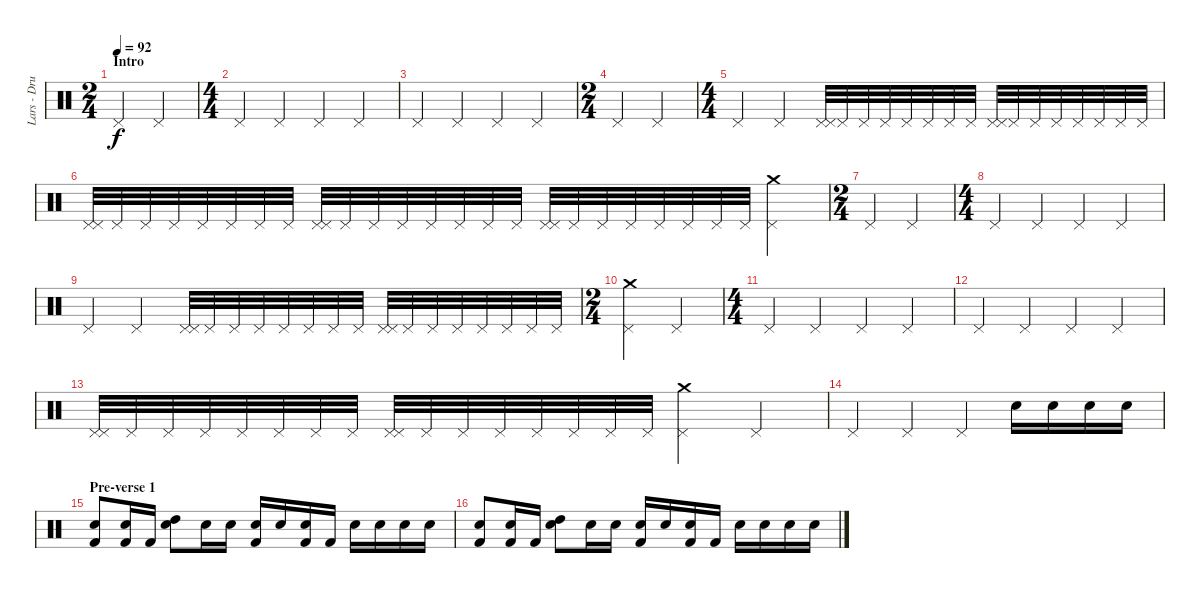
\track ("Lars - Drums" "Lars - Dru") {instrument percussion}
\staff {score}
\articulation defaults
\ts (2 4)
\section ("" "Intro")
\tempo 92
\clef neutral
\ks c "Pedal Hi-Hat (hit)".4{dy f} "Pedal Hi-Hat (hit)".4
|
\ts (4 4)
"Pedal Hi-Hat (hit)".4 "Pedal Hi-Hat (hit)".4 "Pedal Hi-Hat (hit)".4 "Pedal Hi-Hat (hit)".4 |
"Pedal Hi-Hat (hit)".4 "Pedal Hi-Hat (hit)".4 "Pedal Hi-Hat (hit)".4 "Pedal Hi-Hat (hit)".4 |
\ts (2 4)
"Pedal Hi-Hat (hit)".4 "Pedal Hi-Hat (hit)".4 |
\ts (4 4)
"Pedal Hi-Hat (hit)".4 "Pedal Hi-Hat (hit)".4 ("Pedal Hi-Hat (hit)" "Pedal Hi-Hat (hit)").32 "Pedal Hi-Hat (hit)".32 "Pedal Hi-Hat (hit)".32 "Pedal Hi-Hat (hit)".32 "Pedal Hi-Hat (hit)".32 "Pedal Hi-Hat (hit)".32 "Pedal Hi-Hat (hit)".32 "Pedal Hi-Hat (hit)".32 ("Pedal Hi-Hat (hit)" "Pedal Hi-Hat (hit)").32 "Pedal Hi-Hat (hit)".32 "Pedal Hi-Hat (hit)".32 "Pedal Hi-Hat (hit)".32 "Pedal Hi-Hat (hit)".32 "Pedal Hi-Hat (hit)".32 "Pedal Hi-Hat (hit)".32 "Pedal Hi-Hat (hit)".32 |
("Pedal Hi-Hat (hit)" "Pedal Hi-Hat (hit)").32 "Pedal Hi-Hat (hit)".32 "Pedal Hi-Hat (hit)".32 "Pedal Hi-Hat (hit)".32 "Pedal Hi-Hat (hit)".32 "Pedal Hi-Hat (hit)".32 "Pedal Hi-Hat (hit)".32 "Pedal Hi-Hat (hit)".32 ("Pedal Hi-Hat (hit)" "Pedal Hi-Hat (hit)").32 "Pedal Hi-Hat (hit)".32 "Pedal Hi-Hat (hit)".32 "Pedal Hi-Hat (hit)".32 "Pedal Hi-Hat (hit)".32 "Pedal Hi-Hat (hit)".32 "Pedal Hi-Hat (hit)".32 "Pedal Hi-Hat (hit)".32 ("Pedal Hi-Hat (hit)" "Pedal Hi-Hat (hit)").32 "Pedal Hi-Hat (hit)".32 "Pedal Hi-Hat (hit)".32 "Pedal Hi-Hat (hit)".32 "Pedal Hi-Hat (hit)".32 "Pedal Hi-Hat (hit)".32 "Pedal Hi-Hat (hit)".32 "Pedal Hi-Hat (hit)".32 ("Crash medium (hit)" "Pedal Hi-Hat (hit)").4 |
\ts (2 4)
"Pedal Hi-Hat (hit)".4 "Pedal Hi-Hat (hit)".4 |
\ts (4 4)
"Pedal Hi-Hat (hit)".4 "Pedal Hi-Hat (hit)".4 "Pedal Hi-Hat (hit)".4 "Pedal Hi-Hat (hit)".4 |
"Pedal Hi-Hat (hit)".4 "Pedal Hi-Hat (hit)".4 ("Pedal Hi-Hat (hit)" "Pedal Hi-Hat (hit)").32 "Pedal Hi-Hat (hit)".32 "Pedal Hi-Hat (hit)".32 "Pedal Hi-Hat (hit)".32 "Pedal Hi-Hat (hit)".32 "Pedal Hi-Hat (hit)".32 "Pedal Hi-Hat (hit)".32 "Pedal Hi-Hat (hit)".32 ("Pedal Hi-Hat (hit)" "Pedal Hi-Hat (hit)").32 "Pedal Hi-Hat (hit)".32 "Pedal Hi-Hat (hit)".32 "Pedal Hi-Hat (hit)".32 "Pedal Hi-Hat (hit)".32 "Pedal Hi-Hat (hit)".32 "Pedal Hi-Hat (hit)".32 "Pedal Hi-Hat (hit)".32 |
\ts (2 4)
("Crash medium (hit)" "Pedal Hi-Hat (hit)").4 "Pedal Hi-Hat (hit)".4 |
\ts (4 4)
"Pedal Hi-Hat (hit)".4 "Pedal Hi-Hat (hit)".4 "Pedal Hi-Hat (hit)".4 "Pedal Hi-Hat (hit)".4 |
"Pedal Hi-Hat (hit)".4 "Pedal Hi-Hat (hit)".4 "Pedal Hi-Hat (hit)".4 "Pedal Hi-Hat (hit)".4 |
("Pedal Hi-Hat (hit)" "Pedal Hi-Hat (hit)").32 "Pedal Hi-Hat (hit)".32 "Pedal Hi-Hat (hit)".32 "Pedal Hi-Hat (hit)".32 "Pedal Hi-Hat (hit)".32 "Pedal Hi-Hat (hit)".32 "Pedal Hi-Hat (hit)".32 "Pedal Hi-Hat (hit)".32 ("Pedal Hi-Hat (hit)" "Pedal Hi-Hat (hit)").32 "Pedal Hi-Hat (hit)".32 "Pedal Hi-Hat (hit)".32 "Pedal Hi-Hat (hit)".32 "Pedal Hi-Hat (hit)".32 "Pedal Hi-Hat (hit)".32 "Pedal Hi-Hat (hit)".32 "Pedal Hi-Hat (hit)".32 ("Crash medium (hit)" "Pedal Hi-Hat (hit)").4 "Pedal Hi-Hat (hit)".4 |
"Pedal Hi-Hat (hit)".4 "Pedal Hi-Hat (hit)".4 "Pedal Hi-Hat (hit)".4 "Electric Snare (hit)".16 "Electric Snare (hit)".16 "Electric Snare (hit)".16 "Electric Snare (hit)".16 |
\section ("" "Pre-verse 1")
("Electric Snare (hit)" "Kick (hit) 2").8 ("Electric Snare (hit)" "Kick (hit) 2").16 "Kick (hit) 2".16 ("High Tom (hit)" "Electric Snare (hit)").8 "Electric Snare (hit)".16 "Electric Snare (hit)".16 ("Electric Snare (hit)" "Kick (hit) 2").16 "Electric Snare (hit)".16 ("Electric Snare (hit)" "Kick (hit) 2").16 "Kick (hit) 2".16 "Electric Snare (hit)".16 "Electric Snare (hit)".16 "Electric Snare (hit)".16 "Electric Snare (hit)".16 |
("Electric Snare (hit)" "Kick (hit) 2").8 ("Electric Snare (hit)" "Kick (hit) 2").16 "Kick (hit) 2".16 ("High Tom (hit)" "Electric Snare (hit)").8 "Electric Snare (hit)".16 "Electric Snare (hit)".16 ("Electric Snare (hit)" "Kick (hit) 2").16 "Electric Snare (hit)".16 ("Electric Snare (hit)" "Kick (hit) 2").16 "Kick (hit) 2".16 "Electric Snare (hit)".16 "Electric Snare (hit)".16 "Electric Snare (hit)".16 "Electric Snare (hit)".16
